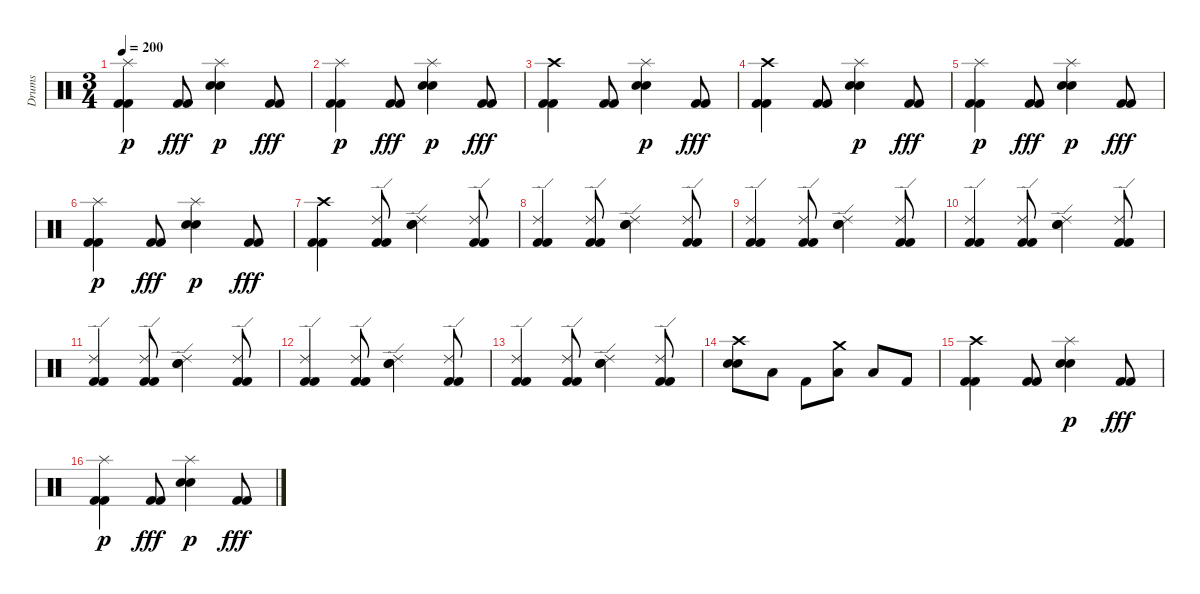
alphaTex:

\track ("Drums" "Drums") {instrument percussion bank 41}
\staff
\articulation defaults
\ts (3 4)
\tempo 200
\clef neutral
\ks c
("Kick (hit) 2" "Kick (hit) 2" "Splash (hit)").4{dy p} ("Kick (hit) 2" "Kick (hit) 2").8{dy fff} ("Snare (hit) 2" "Electric Snare (hit)" "Splash (hit)").4{dy p} ("Kick (hit) 2" "Kick (hit) 2").8{dy fff} |
("Kick (hit) 2" "Kick (hit) 2" "Splash (hit)").4{dy p} ("Kick (hit) 2" "Kick (hit) 2").8{dy fff} ("Snare (hit) 2" "Electric Snare (hit)" "Splash (hit)").4{dy p} ("Kick (hit) 2" "Kick (hit) 2").8{dy fff} |
("Kick (hit) 2" "Kick (hit) 2" "Crash high (hit)").4 ("Kick (hit) 2" "Kick (hit) 2").8 ("Snare (hit) 2" "Electric Snare (hit)" "Splash (hit)").4{dy p} ("Kick (hit) 2" "Kick (hit) 2").8{dy fff} |
("Kick (hit) 2" "Kick (hit) 2" "Crash high (hit)").4 ("Kick (hit) 2" "Kick (hit) 2").8 ("Snare (hit) 2" "Electric Snare (hit)" "Splash (hit)").4{dy p} ("Kick (hit) 2" "Kick (hit) 2").8{dy fff} |
("Kick (hit) 2" "Kick (hit) 2" "Splash (hit)").4{dy p} ("Kick (hit) 2" "Kick (hit) 2").8{dy fff} ("Snare (hit) 2" "Electric Snare (hit)" "Splash (hit)").4{dy p} ("Kick (hit) 2" "Kick (hit) 2").8{dy fff} |
("Kick (hit) 2" "Kick (hit) 2" "Splash (hit)").4{dy p} ("Kick (hit) 2" "Kick (hit) 2").8{dy fff} ("Snare (hit) 2" "Electric Snare (hit)" "Splash (hit)").4{dy p} ("Kick (hit) 2" "Kick (hit) 2").8{dy fff} |
("Kick (hit) 2" "Kick (hit) 2" "Crash high (hit)").4 ("Kick (hit) 2" "Kick (hit) 2" "Ride (edge) 2").8 ("Snare (hit) 2" "Electric Snare (hit)" "Ride (edge) 2").4 ("Kick (hit) 2" "Ride (edge) 2" "Kick (hit) 2").8 |
("Kick (hit) 2" "Ride (edge) 2" "Kick (hit) 2").4 ("Kick (hit) 2" "Ride (edge) 2" "Kick (hit) 2").8 ("Snare (hit) 2" "Ride (edge) 2" "Electric Snare (hit)").4 ("Kick (hit) 2" "Ride (edge) 2" "Kick (hit) 2").8 |
("Kick (hit) 2" "Ride (edge) 2" "Kick (hit) 2").4 ("Kick (hit) 2" "Ride (edge) 2" "Kick (hit) 2").8 ("Snare (hit) 2" "Ride (edge) 2" "Electric Snare (hit)").4 ("Kick (hit) 2" "Ride (edge) 2" "Kick (hit) 2").8 |
("Kick (hit) 2" "Ride (edge) 2" "Kick (hit) 2").4 ("Kick (hit) 2" "Ride (edge) 2" "Kick (hit) 2").8 ("Snare (hit) 2" "Ride (edge) 2" "Electric Snare (hit)").4 ("Kick (hit) 2" "Ride (edge) 2" "Kick (hit) 2").8 |
("Kick (hit) 2" "Ride (edge) 2" "Kick (hit) 2").4 ("Kick (hit) 2" "Ride (edge) 2" "Kick (hit) 2").8 ("Snare (hit) 2" "Ride (edge) 2" "Electric Snare (hit)").4 ("Kick (hit) 2" "Ride (edge) 2" "Kick (hit) 2").8 |
("Kick (hit) 2" "Ride (edge) 2" "Kick (hit) 2").4 ("Kick (hit) 2" "Ride (edge) 2" "Kick (hit) 2").8 ("Snare (hit) 2" "Ride (edge) 2" "Electric Snare (hit)").4 ("Kick (hit) 2" "Ride (edge) 2" "Kick (hit) 2").8 |
("Kick (hit) 2" "Ride (edge) 2" "Kick (hit) 2").4 ("Kick (hit) 2" "Ride (edge) 2" "Kick (hit) 2").8 ("Snare (hit) 2" "Ride (edge) 2" "Electric Snare (hit)").4 ("Kick (hit) 2" "Ride (edge) 2" "Kick (hit) 2").8 |
("Snare (hit) 2" "Electric Snare (hit)" "Crash high (hit)").8 "Low Tom (hit)".8 "Kick (hit) 2".8 ("Low Tom (hit)" "Crash medium (hit)").8 "Low Tom (hit)".8 "Kick (hit) 2".8 |
("Kick (hit) 2" "Kick (hit) 2" "Crash high (hit)").4 ("Kick (hit) 2" "Kick (hit) 2").8 ("Snare (hit) 2" "Electric Snare (hit)" "Splash (hit)").4{dy p} ("Kick (hit) 2" "Kick (hit) 2").8{dy fff} |
("Kick (hit) 2" "Kick (hit) 2" "Splash (hit)").4{dy p} ("Kick (hit) 2" "Kick (hit) 2").8{dy fff} ("Snare (hit) 2" "Electric Snare (hit)" "Splash (hit)").4{dy p} ("Kick (hit) 2" "Kick (hit) 2").8{dy fff}
